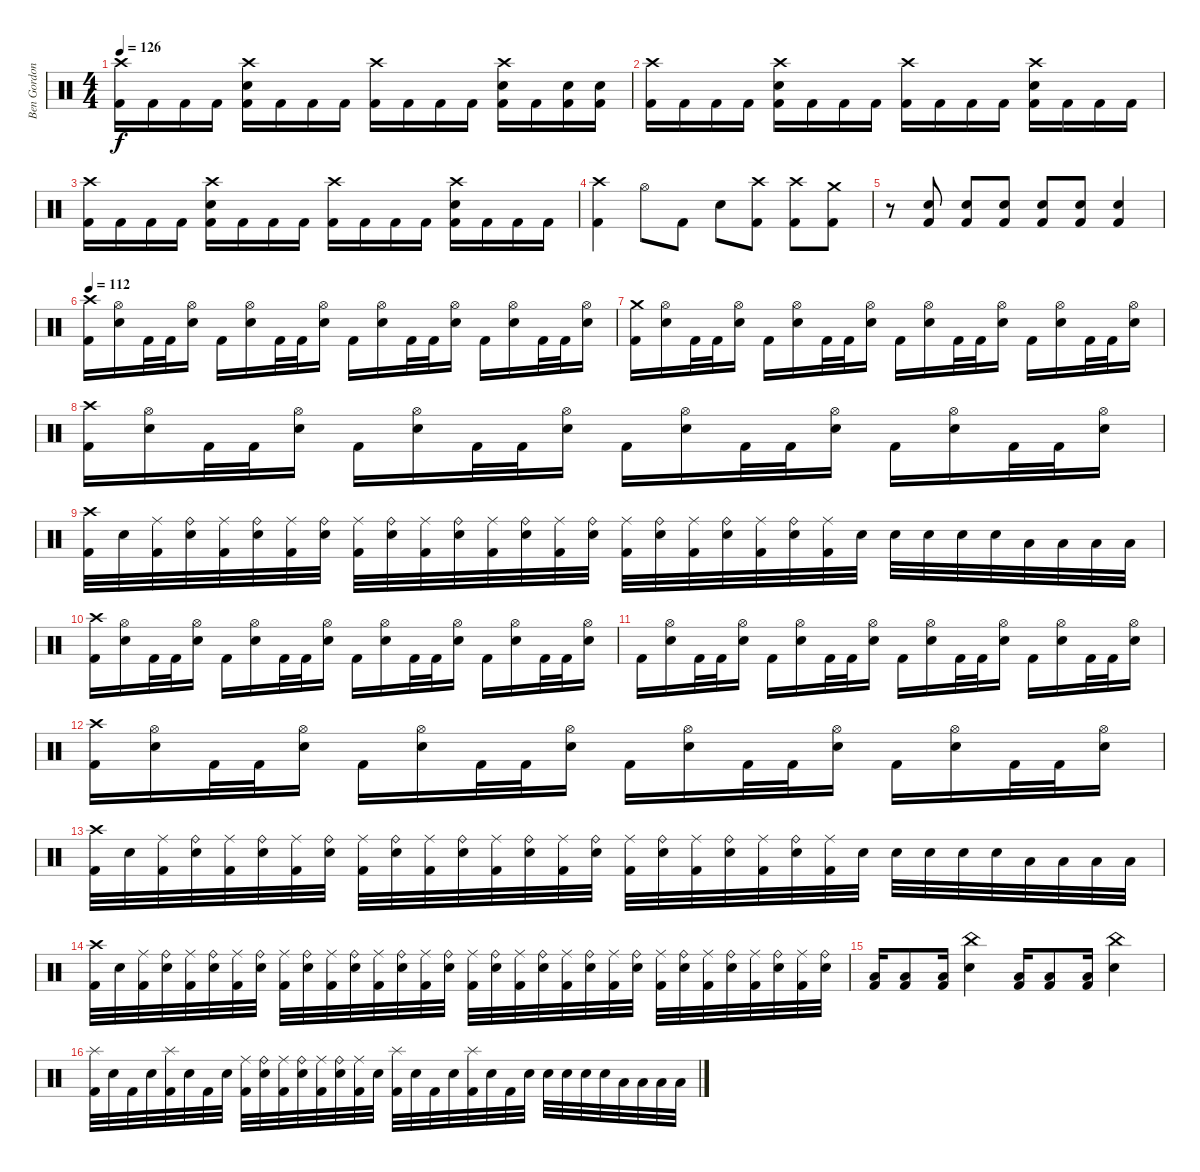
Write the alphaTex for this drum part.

\track ("Ben Gordon" "Ben Gordon") {instrument percussion}
\staff {score}
\articulation defaults
\ts (4 4)
\tempo 126
\clef neutral
\ks c
("Crash high (hit)" "Kick (hit) 2").16{dy f} "Kick (hit) 2".16 "Kick (hit) 2".16 "Kick (hit) 2".16 ("Crash high (hit)" "Electric Snare (hit)" "Kick (hit) 2").16 "Kick (hit) 2".16 "Kick (hit) 2".16 "Kick (hit) 2".16 ("Crash high (hit)" "Kick (hit) 2").16 "Kick (hit) 2".16 "Kick (hit) 2".16 "Kick (hit) 2".16 ("Crash high (hit)" "Electric Snare (hit)" "Kick (hit) 2").16 "Kick (hit) 2".16 ("Electric Snare (hit)" "Kick (hit) 2").16 ("Electric Snare (hit)" "Kick (hit) 2").16 |
("Crash high (hit)" "Kick (hit) 2").16 "Kick (hit) 2".16 "Kick (hit) 2".16 "Kick (hit) 2".16 ("Crash high (hit)" "Electric Snare (hit)" "Kick (hit) 2").16 "Kick (hit) 2".16 "Kick (hit) 2".16 "Kick (hit) 2".16 ("Crash high (hit)" "Kick (hit) 2").16 "Kick (hit) 2".16 "Kick (hit) 2".16 "Kick (hit) 2".16 ("Crash high (hit)" "Electric Snare (hit)" "Kick (hit) 2").16 "Kick (hit) 2".16 "Kick (hit) 2".16 "Kick (hit) 2".16 |
("Crash high (hit)" "Kick (hit) 2").16 "Kick (hit) 2".16 "Kick (hit) 2".16 "Kick (hit) 2".16 ("Crash high (hit)" "Electric Snare (hit)" "Kick (hit) 2").16 "Kick (hit) 2".16 "Kick (hit) 2".16 "Kick (hit) 2".16 ("Crash high (hit)" "Kick (hit) 2").16 "Kick (hit) 2".16 "Kick (hit) 2".16 "Kick (hit) 2".16 ("Crash high (hit)" "Electric Snare (hit)" "Kick (hit) 2").16 "Kick (hit) 2".16 "Kick (hit) 2".16 "Kick (hit) 2".16 |
("Crash high (hit)" "Kick (hit) 2").4 "Hi-Hat (open)".8 "Kick (hit) 2".8 "Electric Snare (hit)".8 ("Crash high (hit)" "Kick (hit) 2").8 ("Crash high (hit)" "Kick (hit) 2").8 ("Crash medium (hit)" "Kick (hit) 2").8 |
r.8 ("Electric Snare (hit)" "Kick (hit) 2").8 ("Electric Snare (hit)" "Kick (hit) 2").8 ("Electric Snare (hit)" "Kick (hit) 2").8 ("Electric Snare (hit)" "Kick (hit) 2").8 ("Electric Snare (hit)" "Kick (hit) 2").8 ("Electric Snare (hit)" "Kick (hit) 2").4 |
\tempo 80
\tempo 112
("Crash high (hit)" "Kick (hit) 2").16 ("Hi-Hat (open)" "Electric Snare (hit)").16 "Kick (hit) 2".32 "Kick (hit) 2".32 ("Hi-Hat (open)" "Electric Snare (hit)").16 "Kick (hit) 2".16 ("Hi-Hat (open)" "Electric Snare (hit)").16 "Kick (hit) 2".32 "Kick (hit) 2".32 ("Hi-Hat (open)" "Electric Snare (hit)").16 "Kick (hit) 2".16 ("Hi-Hat (open)" "Electric Snare (hit)").16 "Kick (hit) 2".32 "Kick (hit) 2".32 ("Hi-Hat (open)" "Electric Snare (hit)").16 "Kick (hit) 2".16 ("Hi-Hat (open)" "Electric Snare (hit)").16 "Kick (hit) 2".32 "Kick (hit) 2".32 ("Hi-Hat (open)" "Electric Snare (hit)").16 |
("Crash medium (hit)" "Kick (hit) 2").16 ("Hi-Hat (open)" "Electric Snare (hit)").16 "Kick (hit) 2".32 "Kick (hit) 2".32 ("Hi-Hat (open)" "Electric Snare (hit)").16 "Kick (hit) 2".16 ("Hi-Hat (open)" "Electric Snare (hit)").16 "Kick (hit) 2".32 "Kick (hit) 2".32 ("Hi-Hat (open)" "Electric Snare (hit)").16 "Kick (hit) 2".16 ("Hi-Hat (open)" "Electric Snare (hit)").16 "Kick (hit) 2".32 "Kick (hit) 2".32 ("Hi-Hat (open)" "Electric Snare (hit)").16 "Kick (hit) 2".16 ("Hi-Hat (open)" "Electric Snare (hit)").16 "Kick (hit) 2".32 "Kick (hit) 2".32 ("Hi-Hat (open)" "Electric Snare (hit)").16 |
("Crash high (hit)" "Kick (hit) 2").16 ("Hi-Hat (open)" "Electric Snare (hit)").16 "Kick (hit) 2".32 "Kick (hit) 2".32 ("Hi-Hat (open)" "Electric Snare (hit)").16 "Kick (hit) 2".16 ("Hi-Hat (open)" "Electric Snare (hit)").16 "Kick (hit) 2".32 "Kick (hit) 2".32 ("Hi-Hat (open)" "Electric Snare (hit)").16 "Kick (hit) 2".16 ("Hi-Hat (open)" "Electric Snare (hit)").16 "Kick (hit) 2".32 "Kick (hit) 2".32 ("Hi-Hat (open)" "Electric Snare (hit)").16 "Kick (hit) 2".16 ("Hi-Hat (open)" "Electric Snare (hit)").16 "Kick (hit) 2".32 "Kick (hit) 2".32 ("Hi-Hat (open)" "Electric Snare (hit)").16 |
("Crash high (hit)" "Kick (hit) 2").32 "Electric Snare (hit)".32 ("Ride (middle)" "Kick (hit) 2").32 ("Ride (bell)" "Electric Snare (hit)").32 ("Ride (middle)" "Kick (hit) 2").32 ("Ride (bell)" "Electric Snare (hit)").32 ("Ride (middle)" "Kick (hit) 2").32 ("Ride (bell)" "Electric Snare (hit)").32 ("Ride (middle)" "Kick (hit) 2").32 ("Ride (bell)" "Electric Snare (hit)").32 ("Ride (middle)" "Kick (hit) 2").32 ("Ride (bell)" "Electric Snare (hit)").32 ("Ride (middle)" "Kick (hit) 2").32 ("Ride (bell)" "Electric Snare (hit)").32 ("Ride (middle)" "Kick (hit) 2").32 ("Ride (bell)" "Electric Snare (hit)").32 ("Ride (middle)" "Kick (hit) 2").32 ("Ride (bell)" "Electric Snare (hit)").32 ("Ride (middle)" "Kick (hit) 2").32 ("Ride (bell)" "Electric Snare (hit)").32 ("Ride (middle)" "Kick (hit) 2").32 ("Ride (bell)" "Electric Snare (hit)").32 ("Ride (middle)" "Kick (hit) 2").32 "Electric Snare (hit)".32 "Electric Snare (hit)".32 "Electric Snare (hit)".32 "Electric Snare (hit)".32 "Electric Snare (hit)".32 "Low Tom (hit)".32 "Low Tom (hit)".32 "Low Tom (hit)".32 "Low Tom (hit)".32 |
("Crash high (hit)" "Kick (hit) 2").16 ("Hi-Hat (open)" "Electric Snare (hit)").16 "Kick (hit) 2".32 "Kick (hit) 2".32 ("Hi-Hat (open)" "Electric Snare (hit)").16 "Kick (hit) 2".16 ("Hi-Hat (open)" "Electric Snare (hit)").16 "Kick (hit) 2".32 "Kick (hit) 2".32 ("Hi-Hat (open)" "Electric Snare (hit)").16 "Kick (hit) 2".16 ("Hi-Hat (open)" "Electric Snare (hit)").16 "Kick (hit) 2".32 "Kick (hit) 2".32 ("Hi-Hat (open)" "Electric Snare (hit)").16 "Kick (hit) 2".16 ("Hi-Hat (open)" "Electric Snare (hit)").16 "Kick (hit) 2".32 "Kick (hit) 2".32 ("Hi-Hat (open)" "Electric Snare (hit)").16 |
"Kick (hit) 2".16 ("Hi-Hat (open)" "Electric Snare (hit)").16 "Kick (hit) 2".32 "Kick (hit) 2".32 ("Hi-Hat (open)" "Electric Snare (hit)").16 "Kick (hit) 2".16 ("Hi-Hat (open)" "Electric Snare (hit)").16 "Kick (hit) 2".32 "Kick (hit) 2".32 ("Hi-Hat (open)" "Electric Snare (hit)").16 "Kick (hit) 2".16 ("Hi-Hat (open)" "Electric Snare (hit)").16 "Kick (hit) 2".32 "Kick (hit) 2".32 ("Hi-Hat (open)" "Electric Snare (hit)").16 "Kick (hit) 2".16 ("Hi-Hat (open)" "Electric Snare (hit)").16 "Kick (hit) 2".32 "Kick (hit) 2".32 ("Hi-Hat (open)" "Electric Snare (hit)").16 |
("Crash high (hit)" "Kick (hit) 2").16 ("Hi-Hat (open)" "Electric Snare (hit)").16 "Kick (hit) 2".32 "Kick (hit) 2".32 ("Hi-Hat (open)" "Electric Snare (hit)").16 "Kick (hit) 2".16 ("Hi-Hat (open)" "Electric Snare (hit)").16 "Kick (hit) 2".32 "Kick (hit) 2".32 ("Hi-Hat (open)" "Electric Snare (hit)").16 "Kick (hit) 2".16 ("Hi-Hat (open)" "Electric Snare (hit)").16 "Kick (hit) 2".32 "Kick (hit) 2".32 ("Hi-Hat (open)" "Electric Snare (hit)").16 "Kick (hit) 2".16 ("Hi-Hat (open)" "Electric Snare (hit)").16 "Kick (hit) 2".32 "Kick (hit) 2".32 ("Hi-Hat (open)" "Electric Snare (hit)").16 |
("Crash high (hit)" "Kick (hit) 2").32 "Electric Snare (hit)".32 ("Ride (middle)" "Kick (hit) 2").32 ("Ride (bell)" "Electric Snare (hit)").32 ("Ride (middle)" "Kick (hit) 2").32 ("Ride (bell)" "Electric Snare (hit)").32 ("Ride (middle)" "Kick (hit) 2").32 ("Ride (bell)" "Electric Snare (hit)").32 ("Ride (middle)" "Kick (hit) 2").32 ("Ride (bell)" "Electric Snare (hit)").32 ("Ride (middle)" "Kick (hit) 2").32 ("Ride (bell)" "Electric Snare (hit)").32 ("Ride (middle)" "Kick (hit) 2").32 ("Ride (bell)" "Electric Snare (hit)").32 ("Ride (middle)" "Kick (hit) 2").32 ("Ride (bell)" "Electric Snare (hit)").32 ("Ride (middle)" "Kick (hit) 2").32 ("Ride (bell)" "Electric Snare (hit)").32 ("Ride (middle)" "Kick (hit) 2").32 ("Ride (bell)" "Electric Snare (hit)").32 ("Ride (middle)" "Kick (hit) 2").32 ("Ride (bell)" "Electric Snare (hit)").32 ("Ride (middle)" "Kick (hit) 2").32 "Electric Snare (hit)".32 "Electric Snare (hit)".32 "Electric Snare (hit)".32 "Electric Snare (hit)".32 "Electric Snare (hit)".32 "Low Tom (hit)".32 "Low Tom (hit)".32 "Low Tom (hit)".32 "Low Tom (hit)".32 |
("Crash high (hit)" "Kick (hit) 2").32 "Electric Snare (hit)".32 ("Ride (middle)" "Kick (hit) 2").32 ("Ride (bell)" "Electric Snare (hit)").32 ("Ride (middle)" "Kick (hit) 2").32 ("Ride (bell)" "Electric Snare (hit)").32 ("Ride (middle)" "Kick (hit) 2").32 ("Ride (bell)" "Electric Snare (hit)").32 ("Ride (middle)" "Kick (hit) 2").32 ("Ride (bell)" "Electric Snare (hit)").32 ("Ride (middle)" "Kick (hit) 2").32 ("Ride (bell)" "Electric Snare (hit)").32 ("Ride (middle)" "Kick (hit) 2").32 ("Ride (bell)" "Electric Snare (hit)").32 ("Ride (middle)" "Kick (hit) 2").32 ("Ride (bell)" "Electric Snare (hit)").32 ("Ride (middle)" "Kick (hit) 2").32 ("Ride (bell)" "Electric Snare (hit)").32 ("Ride (middle)" "Kick (hit) 2").32 ("Ride (bell)" "Electric Snare (hit)").32 ("Ride (middle)" "Kick (hit) 2").32 ("Ride (bell)" "Electric Snare (hit)").32 ("Ride (middle)" "Kick (hit) 2").32 ("Ride (bell)" "Electric Snare (hit)").32 ("Ride (middle)" "Kick (hit) 2").32 ("Ride (bell)" "Electric Snare (hit)").32 ("Ride (middle)" "Kick (hit) 2").32 ("Ride (bell)" "Electric Snare (hit)").32 ("Ride (middle)" "Kick (hit) 2").32 ("Ride (bell)" "Electric Snare (hit)").32 ("Ride (middle)" "Kick (hit) 2").32 ("Ride (bell)" "Electric Snare (hit)").32 |
("Low Floor Tom (hit)" "Kick (hit) 2").16 ("Low Floor Tom (hit)" "Kick (hit) 2").8 ("Low Floor Tom (hit)" "Kick (hit) 2").16 ("China (hit)" "Electric Snare (hit)").4 ("Low Floor Tom (hit)" "Kick (hit) 2").16 ("Low Floor Tom (hit)" "Kick (hit) 2").8 ("Low Floor Tom (hit)" "Kick (hit) 2").16 ("China (hit)" "Electric Snare (hit)").4 |
("Splash (hit)" "Kick (hit) 2").32 "Electric Snare (hit)".32 "Kick (hit) 2".32 "Electric Snare (hit)".32 ("Splash (hit)" "Kick (hit) 2").32 "Electric Snare (hit)".32 "Kick (hit) 2".32 "Electric Snare (hit)".32 ("Ride (middle)" "Kick (hit) 2").32 ("Ride (bell)" "Electric Snare (hit)").32 ("Ride (middle)" "Kick (hit) 2").32 ("Ride (bell)" "Electric Snare (hit)").32 ("Ride (middle)" "Kick (hit) 2").32 ("Ride (bell)" "Electric Snare (hit)").32 ("Ride (middle)" "Kick (hit) 2").32 "Electric Snare (hit)".32 ("Splash (hit)" "Kick (hit) 2").32 "Electric Snare (hit)".32 "Kick (hit) 2".32 "Electric Snare (hit)".32 ("Splash (hit)" "Kick (hit) 2").32 "Electric Snare (hit)".32 "Kick (hit) 2".32 "Electric Snare (hit)".32 "Electric Snare (hit)".32 "Electric Snare (hit)".32 "Electric Snare (hit)".32 "Electric Snare (hit)".32 "Low Tom (hit)".32 "Low Tom (hit)".32 "Low Tom (hit)".32 "Low Tom (hit)".32
